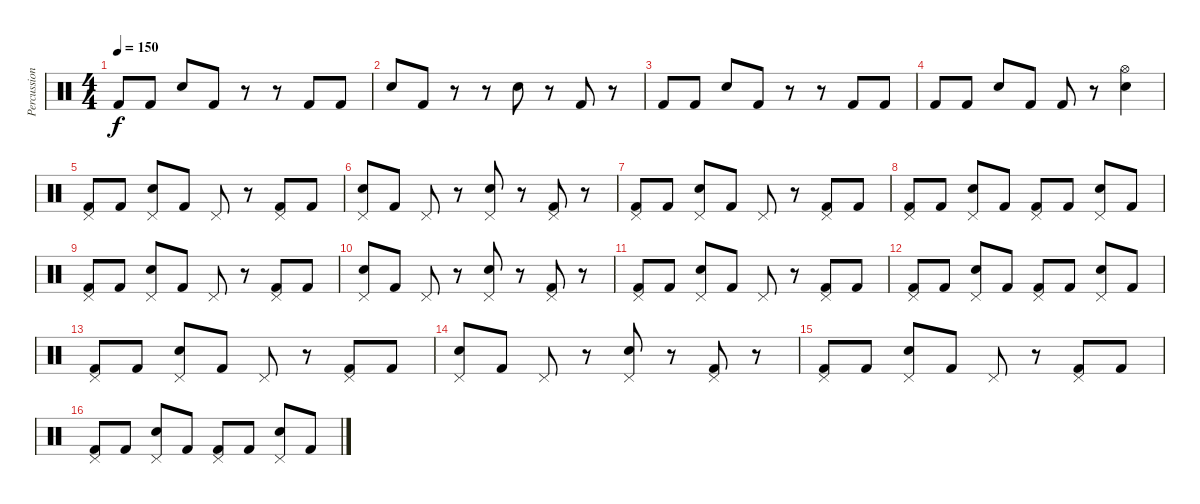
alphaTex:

\track ("Percussion" "Percussion") {instrument percussion}
\staff {score}
\articulation defaults
\ts (4 4)
\tempo 150
\clef neutral
\ks c "Kick (hit) 2".8{dy f} "Kick (hit) 2".8 "Electric Snare (hit)".8 "Kick (hit) 2".8
r.8 r.8 "Kick (hit) 2".8 "Kick (hit) 2".8 |
"Electric Snare (hit)".8 "Kick (hit) 2".8 r.8 r.8 "Electric Snare (hit)".8 r.8 "Kick (hit) 2".8 r.8 |
"Kick (hit) 2".8 "Kick (hit) 2".8 "Electric Snare (hit)".8 "Kick (hit) 2".8 r.8 r.8 "Kick (hit) 2".8 "Kick (hit) 2".8 |
"Kick (hit) 2".8 "Kick (hit) 2".8 "Electric Snare (hit)".8 "Kick (hit) 2".8 "Kick (hit) 2".8 r.8 ("Hi-Hat (open)" "Electric Snare (hit)").4 |
("Pedal Hi-Hat (hit)" "Kick (hit) 2").8 "Kick (hit) 2".8 ("Pedal Hi-Hat (hit)" "Electric Snare (hit)").8 "Kick (hit) 2".8 "Pedal Hi-Hat (hit)".8 r.8 ("Pedal Hi-Hat (hit)" "Kick (hit) 2").8 "Kick (hit) 2".8 |
("Pedal Hi-Hat (hit)" "Electric Snare (hit)").8 "Kick (hit) 2".8 "Pedal Hi-Hat (hit)".8 r.8 ("Pedal Hi-Hat (hit)" "Electric Snare (hit)").8 r.8 ("Pedal Hi-Hat (hit)" "Kick (hit) 2").8 r.8 |
("Pedal Hi-Hat (hit)" "Kick (hit) 2").8 "Kick (hit) 2".8 ("Pedal Hi-Hat (hit)" "Electric Snare (hit)").8 "Kick (hit) 2".8 "Pedal Hi-Hat (hit)".8 r.8 ("Pedal Hi-Hat (hit)" "Kick (hit) 2").8 "Kick (hit) 2".8 |
("Pedal Hi-Hat (hit)" "Kick (hit) 2").8 "Kick (hit) 2".8 ("Pedal Hi-Hat (hit)" "Electric Snare (hit)").8 "Kick (hit) 2".8 ("Pedal Hi-Hat (hit)" "Kick (hit) 2").8 "Kick (hit) 2".8 ("Pedal Hi-Hat (hit)" "Electric Snare (hit)").8 "Kick (hit) 2".8 |
("Pedal Hi-Hat (hit)" "Kick (hit) 2").8 "Kick (hit) 2".8 ("Pedal Hi-Hat (hit)" "Electric Snare (hit)").8 "Kick (hit) 2".8 "Pedal Hi-Hat (hit)".8 r.8 ("Pedal Hi-Hat (hit)" "Kick (hit) 2").8 "Kick (hit) 2".8 |
("Pedal Hi-Hat (hit)" "Electric Snare (hit)").8 "Kick (hit) 2".8 "Pedal Hi-Hat (hit)".8 r.8 ("Pedal Hi-Hat (hit)" "Electric Snare (hit)").8 r.8 ("Pedal Hi-Hat (hit)" "Kick (hit) 2").8 r.8 |
("Pedal Hi-Hat (hit)" "Kick (hit) 2").8 "Kick (hit) 2".8 ("Pedal Hi-Hat (hit)" "Electric Snare (hit)").8 "Kick (hit) 2".8 "Pedal Hi-Hat (hit)".8 r.8 ("Pedal Hi-Hat (hit)" "Kick (hit) 2").8 "Kick (hit) 2".8 |
("Pedal Hi-Hat (hit)" "Kick (hit) 2").8 "Kick (hit) 2".8 ("Pedal Hi-Hat (hit)" "Electric Snare (hit)").8 "Kick (hit) 2".8 ("Pedal Hi-Hat (hit)" "Kick (hit) 2").8 "Kick (hit) 2".8 ("Pedal Hi-Hat (hit)" "Electric Snare (hit)").8 "Kick (hit) 2".8 |
("Pedal Hi-Hat (hit)" "Kick (hit) 2").8 "Kick (hit) 2".8 ("Pedal Hi-Hat (hit)" "Electric Snare (hit)").8 "Kick (hit) 2".8 "Pedal Hi-Hat (hit)".8 r.8 ("Pedal Hi-Hat (hit)" "Kick (hit) 2").8 "Kick (hit) 2".8 |
("Pedal Hi-Hat (hit)" "Electric Snare (hit)").8 "Kick (hit) 2".8 "Pedal Hi-Hat (hit)".8 r.8 ("Pedal Hi-Hat (hit)" "Electric Snare (hit)").8 r.8 ("Pedal Hi-Hat (hit)" "Kick (hit) 2").8 r.8 |
("Pedal Hi-Hat (hit)" "Kick (hit) 2").8 "Kick (hit) 2".8 ("Pedal Hi-Hat (hit)" "Electric Snare (hit)").8 "Kick (hit) 2".8 "Pedal Hi-Hat (hit)".8 r.8 ("Pedal Hi-Hat (hit)" "Kick (hit) 2").8 "Kick (hit) 2".8 |
("Pedal Hi-Hat (hit)" "Kick (hit) 2").8 "Kick (hit) 2".8 ("Pedal Hi-Hat (hit)" "Electric Snare (hit)").8 "Kick (hit) 2".8 ("Pedal Hi-Hat (hit)" "Kick (hit) 2").8 "Kick (hit) 2".8 ("Pedal Hi-Hat (hit)" "Electric Snare (hit)").8 "Kick (hit) 2".8
